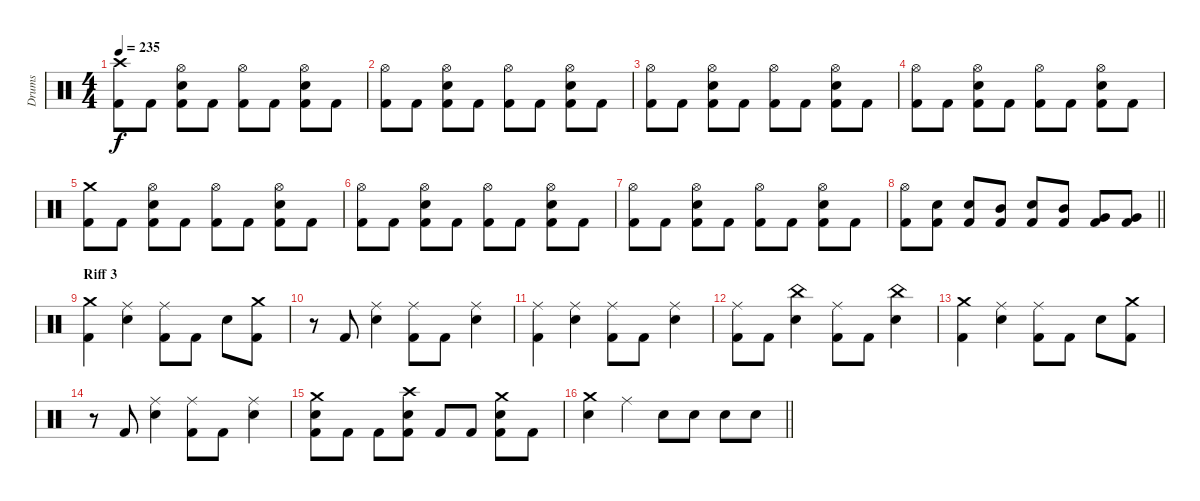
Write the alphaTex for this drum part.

\track ("Drums" "Drums") {instrument percussion}
\staff {score}
\articulation defaults
\ts (4 4)
\tempo 235
\clef neutral
\ks aminor
("Crash high (hit)" "Kick (hit) 2").8{dy f} "Kick (hit) 2".8 ("Electric Snare (hit)" "Kick (hit) 2" "Hi-Hat (open)").8 "Kick (hit) 2".8 ("Hi-Hat (open)" "Kick (hit) 2").8 "Kick (hit) 2".8 ("Hi-Hat (open)" "Kick (hit) 2" "Electric Snare (hit)").8 "Kick (hit) 2".8 |
("Hi-Hat (open)" "Kick (hit) 2").8 "Kick (hit) 2".8 ("Hi-Hat (open)" "Kick (hit) 2" "Electric Snare (hit)").8 "Kick (hit) 2".8 ("Hi-Hat (open)" "Kick (hit) 2").8 "Kick (hit) 2".8 ("Hi-Hat (open)" "Kick (hit) 2" "Electric Snare (hit)").8 "Kick (hit) 2".8 |
("Hi-Hat (open)" "Kick (hit) 2").8 "Kick (hit) 2".8 ("Hi-Hat (open)" "Kick (hit) 2" "Electric Snare (hit)").8 "Kick (hit) 2".8 ("Hi-Hat (open)" "Kick (hit) 2").8 "Kick (hit) 2".8 ("Hi-Hat (open)" "Kick (hit) 2" "Electric Snare (hit)").8 "Kick (hit) 2".8 |
("Hi-Hat (open)" "Kick (hit) 2").8 "Kick (hit) 2".8 ("Hi-Hat (open)" "Kick (hit) 2" "Electric Snare (hit)").8 "Kick (hit) 2".8 ("Hi-Hat (open)" "Kick (hit) 2").8 "Kick (hit) 2".8 ("Hi-Hat (open)" "Kick (hit) 2" "Electric Snare (hit)").8 "Kick (hit) 2".8 |
("Crash medium (hit)" "Kick (hit) 2").8 "Kick (hit) 2".8 ("Electric Snare (hit)" "Kick (hit) 2" "Hi-Hat (open)").8 "Kick (hit) 2".8 ("Hi-Hat (open)" "Kick (hit) 2").8 "Kick (hit) 2".8 ("Hi-Hat (open)" "Kick (hit) 2" "Electric Snare (hit)").8 "Kick (hit) 2".8 |
("Hi-Hat (open)" "Kick (hit) 2").8 "Kick (hit) 2".8 ("Hi-Hat (open)" "Kick (hit) 2" "Electric Snare (hit)").8 "Kick (hit) 2".8 ("Hi-Hat (open)" "Kick (hit) 2").8 "Kick (hit) 2".8 ("Hi-Hat (open)" "Kick (hit) 2" "Electric Snare (hit)").8 "Kick (hit) 2".8 |
("Hi-Hat (open)" "Kick (hit) 2").8 "Kick (hit) 2".8 ("Hi-Hat (open)" "Kick (hit) 2" "Electric Snare (hit)").8 "Kick (hit) 2".8 ("Hi-Hat (open)" "Kick (hit) 2").8 "Kick (hit) 2".8 ("Hi-Hat (open)" "Kick (hit) 2" "Electric Snare (hit)").8 "Kick (hit) 2".8 |
\barLineRight lightlight
("Hi-Hat (open)" "Kick (hit) 2").8 ("Electric Snare (hit)" "Kick (hit) 2").8 ("Electric Snare (hit)" "Kick (hit) 2").8 ("Mid Tom (hit)" "Kick (hit) 2").8 ("Electric Snare (hit)" "Kick (hit) 2").8 ("Mid Tom (hit)" "Kick (hit) 2").8 ("Very Low Tom (hit)" "Kick (hit) 2").8 ("Very Low Tom (hit)" "Kick (hit) 2").8 |
\section ("" "Riff 3")
("Crash medium (hit)" "Kick (hit) 2").4 ("Ride (middle)" "Electric Snare (hit)").4 ("Ride (middle)" "Kick (hit) 2").8 "Kick (hit) 2".8 "Electric Snare (hit)".8 ("Kick (hit) 2" "Crash medium (hit)").8 |
r.8 "Kick (hit) 2".8 ("Electric Snare (hit)" "Ride (middle)").4 ("Kick (hit) 2" "Ride (middle)").8 "Kick (hit) 2".8 ("Electric Snare (hit)" "Ride (middle)").4 |
("Ride (middle)" "Kick (hit) 2").4 ("Ride (middle)" "Electric Snare (hit)").4 ("Ride (middle)" "Kick (hit) 2").8 "Kick (hit) 2".8 ("Ride (middle)" "Electric Snare (hit)").4 |
("Ride (middle)" "Kick (hit) 2").8 "Kick (hit) 2".8 ("China (hit)" "Electric Snare (hit)").4 ("Ride (middle)" "Kick (hit) 2").8 "Kick (hit) 2".8 ("China (hit)" "Electric Snare (hit)").4 |
("Crash medium (hit)" "Kick (hit) 2").4 ("Ride (middle)" "Electric Snare (hit)").4 ("Ride (middle)" "Kick (hit) 2").8 "Kick (hit) 2".8 "Electric Snare (hit)".8 ("Kick (hit) 2" "Crash medium (hit)").8 |
r.8 "Kick (hit) 2".8 ("Electric Snare (hit)" "Ride (middle)").4 ("Kick (hit) 2" "Ride (middle)").8 "Kick (hit) 2".8 ("Electric Snare (hit)" "Ride (middle)").4 |
("Electric Snare (hit)" "Crash medium (hit)" "Kick (hit) 2").8 "Kick (hit) 2".8 "Kick (hit) 2".8 ("Electric Snare (hit)" "Crash high (hit)" "Kick (hit) 2").8 "Kick (hit) 2".8 "Kick (hit) 2".8 ("Crash medium (hit)" "Electric Snare (hit)" "Kick (hit) 2").8 "Kick (hit) 2".8 |
\barLineRight lightlight
("Electric Snare (hit)" "Crash medium (hit)").4 "Ride (middle)".4 "Electric Snare (hit)".8 "Electric Snare (hit)".8 "Electric Snare (hit)".8 "Electric Snare (hit)".8
